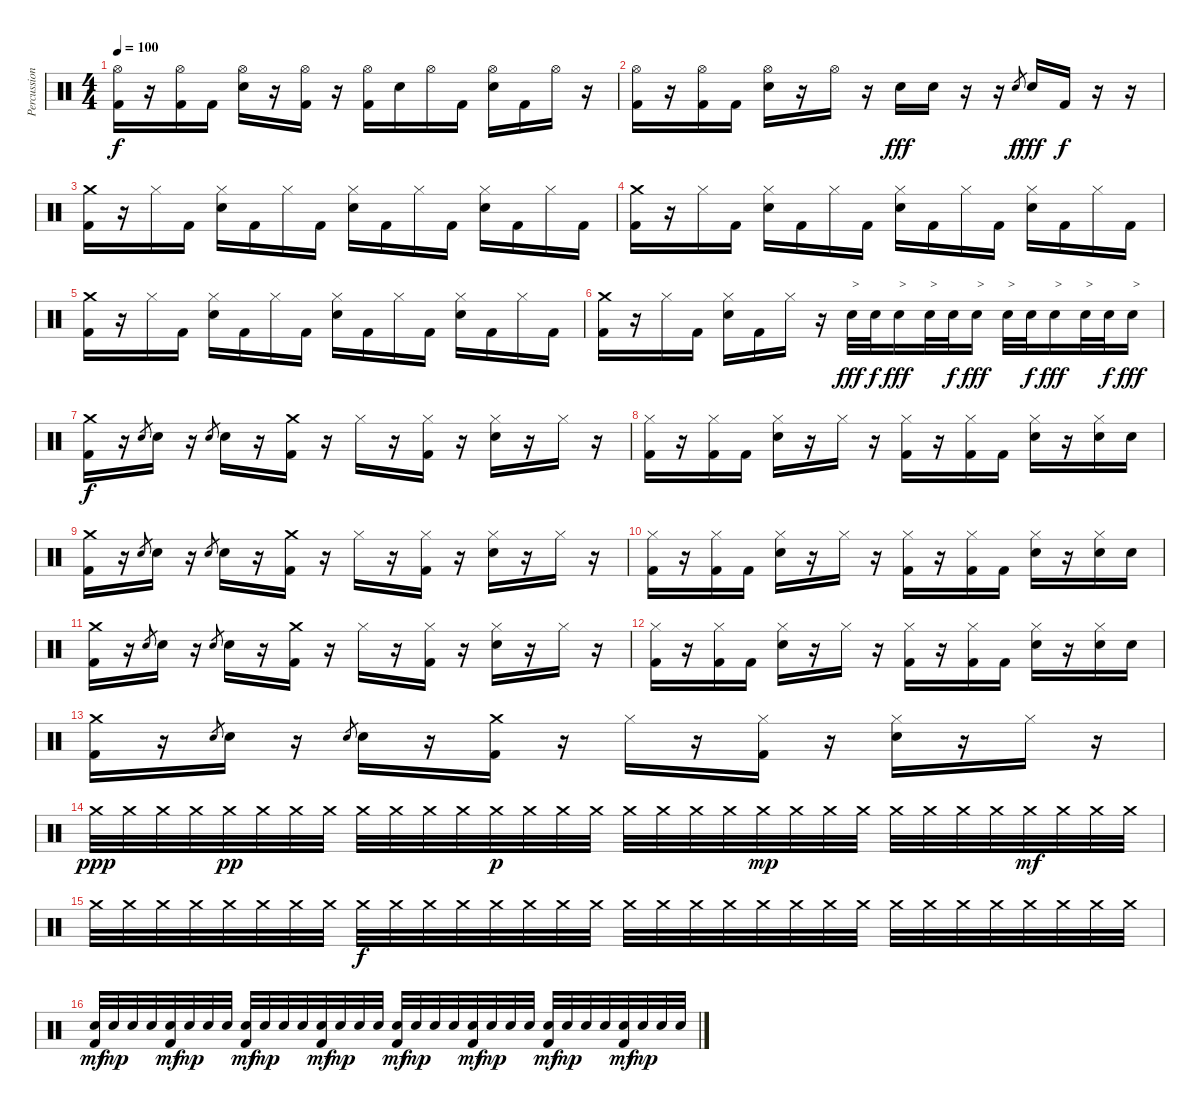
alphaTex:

\track ("Percussion" "Percussion") {instrument percussion}
\staff {score}
\articulation defaults
\ts (4 4)
\tempo 100
\clef neutral
\ks c
("Hi-Hat (open)" "Kick (hit) 2").16{dy f} r.16 ("Hi-Hat (open)" "Kick (hit) 2").16 "Kick (hit) 2".16 ("Hi-Hat (open)" "Snare (hit) 2").16 r.16 ("Hi-Hat (open)" "Kick (hit) 2").16 r.16 ("Hi-Hat (open)" "Kick (hit) 2").16 "Snare (hit) 2".16 "Hi-Hat (open)".16 "Kick (hit) 2".16 ("Hi-Hat (open)" "Snare (hit) 2").16 "Kick (hit) 2".16 "Hi-Hat (open)".16 r.16 |
("Hi-Hat (open)" "Kick (hit) 2").16 r.16 ("Hi-Hat (open)" "Kick (hit) 2").16 "Kick (hit) 2".16 ("Hi-Hat (open)" "Snare (hit) 2").16 r.16 "Hi-Hat (open)".16 r.16 "Snare (hit) 2".16{dy fff} "Snare (hit) 2".16 r.16 r.16 "Snare (hit) 2".8{gr dy f} "Snare (hit) 2".16{dy fff} "Kick (hit) 2".16{dy f} r.16 r.16 |
("Crash medium (hit)" "Kick (hit) 2").16 r.16 "Hi-Hat (closed)".16 "Kick (hit) 2".16 ("Hi-Hat (closed)" "Snare (hit) 2").16 "Kick (hit) 2".16 "Hi-Hat (closed)".16 "Kick (hit) 2".16 ("Hi-Hat (closed)" "Snare (hit) 2").16 "Kick (hit) 2".16 "Hi-Hat (closed)".16 "Kick (hit) 2".16 ("Hi-Hat (closed)" "Snare (hit) 2").16 "Kick (hit) 2".16 "Hi-Hat (closed)".16 "Kick (hit) 2".16 |
("Crash medium (hit)" "Kick (hit) 2").16 r.16 "Hi-Hat (closed)".16 "Kick (hit) 2".16 ("Hi-Hat (closed)" "Snare (hit) 2").16 "Kick (hit) 2".16 "Hi-Hat (closed)".16 "Kick (hit) 2".16 ("Hi-Hat (closed)" "Snare (hit) 2").16 "Kick (hit) 2".16 "Hi-Hat (closed)".16 "Kick (hit) 2".16 ("Hi-Hat (closed)" "Snare (hit) 2").16 "Kick (hit) 2".16 "Hi-Hat (closed)".16 "Kick (hit) 2".16 |
("Crash medium (hit)" "Kick (hit) 2").16 r.16 "Hi-Hat (closed)".16 "Kick (hit) 2".16 ("Hi-Hat (closed)" "Snare (hit) 2").16 "Kick (hit) 2".16 "Hi-Hat (closed)".16 "Kick (hit) 2".16 ("Hi-Hat (closed)" "Snare (hit) 2").16 "Kick (hit) 2".16 "Hi-Hat (closed)".16 "Kick (hit) 2".16 ("Hi-Hat (closed)" "Snare (hit) 2").16 "Kick (hit) 2".16 "Hi-Hat (closed)".16 "Kick (hit) 2".16 |
("Crash medium (hit)" "Kick (hit) 2").16 r.16 "Hi-Hat (closed)".16 "Kick (hit) 2".16 ("Hi-Hat (closed)" "Snare (hit) 2").16 "Kick (hit) 2".16 "Hi-Hat (closed)".16 r.16 "Snare (hit) 2".32{txt ">" dy fff} "Snare (hit) 2".32{dy f} "Snare (hit) 2".16{txt ">" dy fff} "Snare (hit) 2".32{txt ">"} "Snare (hit) 2".32{dy f} "Snare (hit) 2".16{txt ">" dy fff} "Snare (hit) 2".32{txt ">"} "Snare (hit) 2".32{dy f} "Snare (hit) 2".16{txt ">" dy fff} "Snare (hit) 2".32{txt ">"} "Snare (hit) 2".32{dy f} "Snare (hit) 2".16{txt ">" dy fff} |
("Crash medium (hit)" "Kick (hit) 2").16{dy f} r.16 "Snare (hit) 2".8{gr} "Snare (hit) 2".16 r.16 "Snare (hit) 2".8{gr} "Snare (hit) 2".16 r.16 ("Crash medium (hit)" "Kick (hit) 2").16 r.16 "Hi-Hat (closed)".16 r.16 ("Hi-Hat (closed)" "Kick (hit) 2").16 r.16 ("Hi-Hat (closed)" "Snare (hit) 2").16 r.16 "Hi-Hat (closed)".16 r.16 |
("Hi-Hat (closed)" "Kick (hit) 2").16 r.16 ("Hi-Hat (closed)" "Kick (hit) 2").16 "Kick (hit) 2".16 ("Hi-Hat (closed)" "Snare (hit) 2").16 r.16 "Hi-Hat (closed)".16 r.16 ("Hi-Hat (closed)" "Kick (hit) 2").16 r.16 ("Hi-Hat (closed)" "Kick (hit) 2").16 "Kick (hit) 2".16 ("Hi-Hat (closed)" "Snare (hit) 2").16 r.16 ("Hi-Hat (closed)" "Snare (hit) 2").16 "Snare (hit) 2".16 |
("Crash medium (hit)" "Kick (hit) 2").16 r.16 "Snare (hit) 2".8{gr} "Snare (hit) 2".16 r.16 "Snare (hit) 2".8{gr} "Snare (hit) 2".16 r.16 ("Crash medium (hit)" "Kick (hit) 2").16 r.16 "Hi-Hat (closed)".16 r.16 ("Hi-Hat (closed)" "Kick (hit) 2").16 r.16 ("Hi-Hat (closed)" "Snare (hit) 2").16 r.16 "Hi-Hat (closed)".16 r.16 |
("Hi-Hat (closed)" "Kick (hit) 2").16 r.16 ("Hi-Hat (closed)" "Kick (hit) 2").16 "Kick (hit) 2".16 ("Hi-Hat (closed)" "Snare (hit) 2").16 r.16 "Hi-Hat (closed)".16 r.16 ("Hi-Hat (closed)" "Kick (hit) 2").16 r.16 ("Hi-Hat (closed)" "Kick (hit) 2").16 "Kick (hit) 2".16 ("Hi-Hat (closed)" "Snare (hit) 2").16 r.16 ("Hi-Hat (closed)" "Snare (hit) 2").16 "Snare (hit) 2".16 |
("Crash medium (hit)" "Kick (hit) 2").16 r.16 "Snare (hit) 2".8{gr} "Snare (hit) 2".16 r.16 "Snare (hit) 2".8{gr} "Snare (hit) 2".16 r.16 ("Crash medium (hit)" "Kick (hit) 2").16 r.16 "Hi-Hat (closed)".16 r.16 ("Hi-Hat (closed)" "Kick (hit) 2").16 r.16 ("Hi-Hat (closed)" "Snare (hit) 2").16 r.16 "Hi-Hat (closed)".16 r.16 |
("Hi-Hat (closed)" "Kick (hit) 2").16 r.16 ("Hi-Hat (closed)" "Kick (hit) 2").16 "Kick (hit) 2".16 ("Hi-Hat (closed)" "Snare (hit) 2").16 r.16 "Hi-Hat (closed)".16 r.16 ("Hi-Hat (closed)" "Kick (hit) 2").16 r.16 ("Hi-Hat (closed)" "Kick (hit) 2").16 "Kick (hit) 2".16 ("Hi-Hat (closed)" "Snare (hit) 2").16 r.16 ("Hi-Hat (closed)" "Snare (hit) 2").16 "Snare (hit) 2".16 |
("Crash medium (hit)" "Kick (hit) 2").16 r.16 "Snare (hit) 2".8{gr} "Snare (hit) 2".16 r.16 "Snare (hit) 2".8{gr} "Snare (hit) 2".16 r.16 ("Crash medium (hit)" "Kick (hit) 2").16 r.16 "Hi-Hat (closed)".16 r.16 ("Hi-Hat (closed)" "Kick (hit) 2").16 r.16 ("Hi-Hat (closed)" "Snare (hit) 2").16 r.16 "Hi-Hat (closed)".16 r.16 |
"Crash medium (hit)".32{dy ppp} "Crash medium (hit)".32 "Crash medium (hit)".32 "Crash medium (hit)".32 "Crash medium (hit)".32{dy pp} "Crash medium (hit)".32 "Crash medium (hit)".32 "Crash medium (hit)".32 "Crash medium (hit)".32 "Crash medium (hit)".32 "Crash medium (hit)".32 "Crash medium (hit)".32 "Crash medium (hit)".32{dy p} "Crash medium (hit)".32 "Crash medium (hit)".32 "Crash medium (hit)".32 "Crash medium (hit)".32 "Crash medium (hit)".32 "Crash medium (hit)".32 "Crash medium (hit)".32 "Crash medium (hit)".32{dy mp} "Crash medium (hit)".32 "Crash medium (hit)".32 "Crash medium (hit)".32 "Crash medium (hit)".32 "Crash medium (hit)".32 "Crash medium (hit)".32 "Crash medium (hit)".32 "Crash medium (hit)".32{dy mf} "Crash medium (hit)".32 "Crash medium (hit)".32 "Crash medium (hit)".32 |
"Crash medium (hit)".32 "Crash medium (hit)".32 "Crash medium (hit)".32 "Crash medium (hit)".32 "Crash medium (hit)".32 "Crash medium (hit)".32 "Crash medium (hit)".32 "Crash medium (hit)".32 "Crash medium (hit)".32{dy f} "Crash medium (hit)".32 "Crash medium (hit)".32 "Crash medium (hit)".32 "Crash medium (hit)".32 "Crash medium (hit)".32 "Crash medium (hit)".32 "Crash medium (hit)".32 "Crash medium (hit)".32 "Crash medium (hit)".32 "Crash medium (hit)".32 "Crash medium (hit)".32 "Crash medium (hit)".32 "Crash medium (hit)".32 "Crash medium (hit)".32 "Crash medium (hit)".32 "Crash medium (hit)".32 "Crash medium (hit)".32 "Crash medium (hit)".32 "Crash medium (hit)".32 "Crash medium (hit)".32 "Crash medium (hit)".32 "Crash medium (hit)".32 "Crash medium (hit)".32 |
("Snare (hit) 2" "Kick (hit) 2").32{dy mf} "Snare (hit) 2".32{dy mp} "Snare (hit) 2".32 "Snare (hit) 2".32 ("Snare (hit) 2" "Kick (hit) 2").32{dy mf} "Snare (hit) 2".32{dy mp} "Snare (hit) 2".32 "Snare (hit) 2".32 ("Snare (hit) 2" "Kick (hit) 2").32{dy mf} "Snare (hit) 2".32{dy mp} "Snare (hit) 2".32 "Snare (hit) 2".32 ("Snare (hit) 2" "Kick (hit) 2").32{dy mf} "Snare (hit) 2".32{dy mp} "Snare (hit) 2".32 "Snare (hit) 2".32 ("Snare (hit) 2" "Kick (hit) 2").32{dy mf} "Snare (hit) 2".32{dy mp} "Snare (hit) 2".32 "Snare (hit) 2".32 ("Snare (hit) 2" "Kick (hit) 2").32{dy mf} "Snare (hit) 2".32{dy mp} "Snare (hit) 2".32 "Snare (hit) 2".32 ("Snare (hit) 2" "Kick (hit) 2").32{dy mf} "Snare (hit) 2".32{dy mp} "Snare (hit) 2".32 "Snare (hit) 2".32 ("Snare (hit) 2" "Kick (hit) 2").32{dy mf} "Snare (hit) 2".32{dy mp} "Snare (hit) 2".32 "Snare (hit) 2".32
